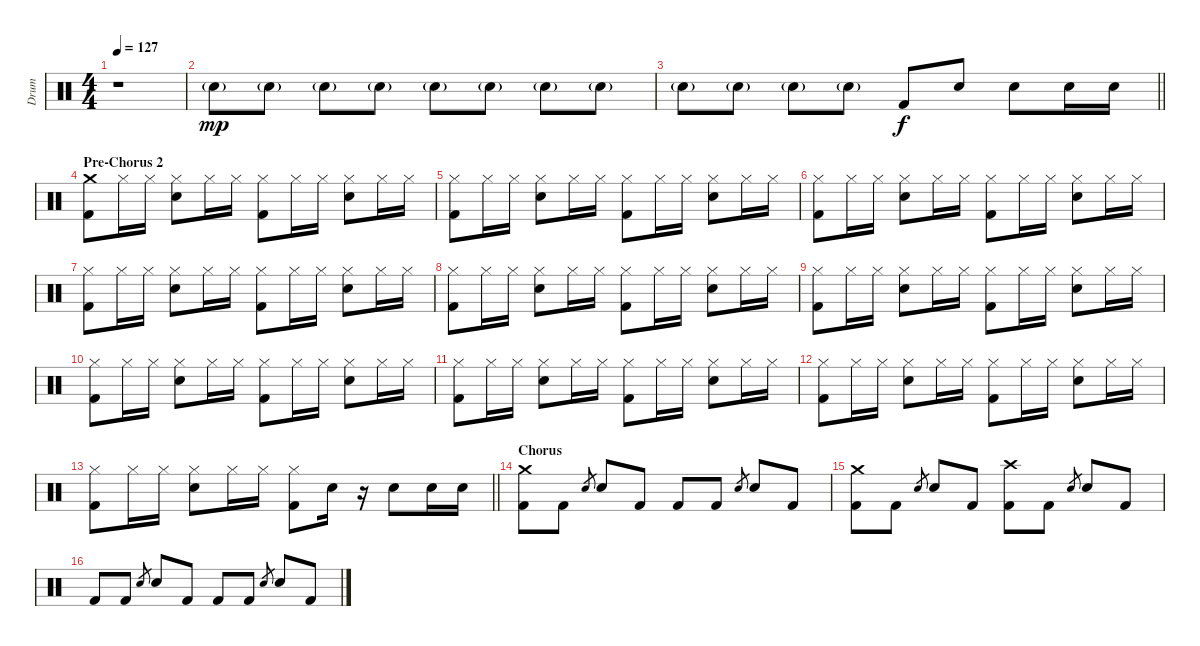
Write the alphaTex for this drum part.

\track ("Drum" "Drum") {instrument percussion}
\staff {score}
\articulation defaults
\ts (4 4)
\tempo 127
\clef neutral
\ks c
r.1{dy f} |
"Electric Snare (hit)"{g}.8{dy mp} "Electric Snare (hit)"{g}.8 "Electric Snare (hit)"{g}.8 "Electric Snare (hit)"{g}.8 "Electric Snare (hit)"{g}.8 "Electric Snare (hit)"{g}.8 "Electric Snare (hit)"{g}.8 "Electric Snare (hit)"{g}.8 |
\barLineRight lightlight "Electric Snare (hit)"{g}.8 "Electric Snare (hit)"{g}.8 "Electric Snare (hit)"{g}.8 "Electric Snare (hit)"{g}.8 "Kick (hit) 2".8{dy f} "Electric Snare (hit)".8 "Electric Snare (hit)".8 "Electric Snare (hit)".16 "Electric Snare (hit)".16
|
\section ("" "Pre-Chorus 2")
("Crash medium (hit)" "Kick (hit) 2").8 "Hi-Hat (closed)".16 "Hi-Hat (closed)".16 ("Hi-Hat (closed)" "Electric Snare (hit)").8 "Hi-Hat (closed)".16 "Hi-Hat (closed)".16 ("Hi-Hat (closed)" "Kick (hit) 2").8 "Hi-Hat (closed)".16 "Hi-Hat (closed)".16 ("Hi-Hat (closed)" "Electric Snare (hit)").8 "Hi-Hat (closed)".16 "Hi-Hat (closed)".16 |
("Hi-Hat (closed)" "Kick (hit) 2").8 "Hi-Hat (closed)".16 "Hi-Hat (closed)".16 ("Hi-Hat (closed)" "Electric Snare (hit)").8 "Hi-Hat (closed)".16 "Hi-Hat (closed)".16 ("Hi-Hat (closed)" "Kick (hit) 2").8 "Hi-Hat (closed)".16 "Hi-Hat (closed)".16 ("Hi-Hat (closed)" "Electric Snare (hit)").8 "Hi-Hat (closed)".16 "Hi-Hat (closed)".16 |
("Hi-Hat (closed)" "Kick (hit) 2").8 "Hi-Hat (closed)".16 "Hi-Hat (closed)".16 ("Hi-Hat (closed)" "Electric Snare (hit)").8 "Hi-Hat (closed)".16 "Hi-Hat (closed)".16 ("Hi-Hat (closed)" "Kick (hit) 2").8 "Hi-Hat (closed)".16 "Hi-Hat (closed)".16 ("Hi-Hat (closed)" "Electric Snare (hit)").8 "Hi-Hat (closed)".16 "Hi-Hat (closed)".16 |
("Hi-Hat (closed)" "Kick (hit) 2").8 "Hi-Hat (closed)".16 "Hi-Hat (closed)".16 ("Hi-Hat (closed)" "Electric Snare (hit)").8 "Hi-Hat (closed)".16 "Hi-Hat (closed)".16 ("Hi-Hat (closed)" "Kick (hit) 2").8 "Hi-Hat (closed)".16 "Hi-Hat (closed)".16 ("Hi-Hat (closed)" "Electric Snare (hit)").8 "Hi-Hat (closed)".16 "Hi-Hat (closed)".16 |
("Hi-Hat (closed)" "Kick (hit) 2").8 "Hi-Hat (closed)".16 "Hi-Hat (closed)".16 ("Hi-Hat (closed)" "Electric Snare (hit)").8 "Hi-Hat (closed)".16 "Hi-Hat (closed)".16 ("Hi-Hat (closed)" "Kick (hit) 2").8 "Hi-Hat (closed)".16 "Hi-Hat (closed)".16 ("Hi-Hat (closed)" "Electric Snare (hit)").8 "Hi-Hat (closed)".16 "Hi-Hat (closed)".16 |
("Hi-Hat (closed)" "Kick (hit) 2").8 "Hi-Hat (closed)".16 "Hi-Hat (closed)".16 ("Hi-Hat (closed)" "Electric Snare (hit)").8 "Hi-Hat (closed)".16 "Hi-Hat (closed)".16 ("Hi-Hat (closed)" "Kick (hit) 2").8 "Hi-Hat (closed)".16 "Hi-Hat (closed)".16 ("Hi-Hat (closed)" "Electric Snare (hit)").8 "Hi-Hat (closed)".16 "Hi-Hat (closed)".16 |
("Hi-Hat (closed)" "Kick (hit) 2").8 "Hi-Hat (closed)".16 "Hi-Hat (closed)".16 ("Hi-Hat (closed)" "Electric Snare (hit)").8 "Hi-Hat (closed)".16 "Hi-Hat (closed)".16 ("Hi-Hat (closed)" "Kick (hit) 2").8 "Hi-Hat (closed)".16 "Hi-Hat (closed)".16 ("Hi-Hat (closed)" "Electric Snare (hit)").8 "Hi-Hat (closed)".16 "Hi-Hat (closed)".16 |
("Hi-Hat (closed)" "Kick (hit) 2").8 "Hi-Hat (closed)".16 "Hi-Hat (closed)".16 ("Hi-Hat (closed)" "Electric Snare (hit)").8 "Hi-Hat (closed)".16 "Hi-Hat (closed)".16 ("Hi-Hat (closed)" "Kick (hit) 2").8 "Hi-Hat (closed)".16 "Hi-Hat (closed)".16 ("Hi-Hat (closed)" "Electric Snare (hit)").8 "Hi-Hat (closed)".16 "Hi-Hat (closed)".16 |
("Hi-Hat (closed)" "Kick (hit) 2").8 "Hi-Hat (closed)".16 "Hi-Hat (closed)".16 ("Hi-Hat (closed)" "Electric Snare (hit)").8 "Hi-Hat (closed)".16 "Hi-Hat (closed)".16 ("Hi-Hat (closed)" "Kick (hit) 2").8 "Hi-Hat (closed)".16 "Hi-Hat (closed)".16 ("Hi-Hat (closed)" "Electric Snare (hit)").8 "Hi-Hat (closed)".16 "Hi-Hat (closed)".16 |
\barLineRight lightlight
("Hi-Hat (closed)" "Kick (hit) 2").8 "Hi-Hat (closed)".16 "Hi-Hat (closed)".16 ("Hi-Hat (closed)" "Electric Snare (hit)").8 "Hi-Hat (closed)".16 "Hi-Hat (closed)".16 ("Hi-Hat (closed)" "Kick (hit) 2").8 "Electric Snare (hit)".16 r.16 "Electric Snare (hit)".8 "Electric Snare (hit)".16 "Electric Snare (hit)".16 |
\section ("" "Chorus")
("Crash medium (hit)" "Kick (hit) 2").8 "Kick (hit) 2".8 "Electric Snare (hit)".8{gr} "Electric Snare (hit)".8 "Kick (hit) 2".8 "Kick (hit) 2".8 "Kick (hit) 2".8 "Electric Snare (hit)".8{gr} "Electric Snare (hit)".8 "Kick (hit) 2".8 |
("Crash medium (hit)" "Kick (hit) 2").8 "Kick (hit) 2".8 "Electric Snare (hit)".8{gr} "Electric Snare (hit)".8 "Kick (hit) 2".8 ("Crash high (hit)" "Kick (hit) 2").8 "Kick (hit) 2".8 "Electric Snare (hit)".8{gr} "Electric Snare (hit)".8 "Kick (hit) 2".8 |
"Kick (hit) 2".8 "Kick (hit) 2".8 "Electric Snare (hit)".8{gr} "Electric Snare (hit)".8 "Kick (hit) 2".8 "Kick (hit) 2".8 "Kick (hit) 2".8 "Electric Snare (hit)".8{gr} "Electric Snare (hit)".8 "Kick (hit) 2".8
